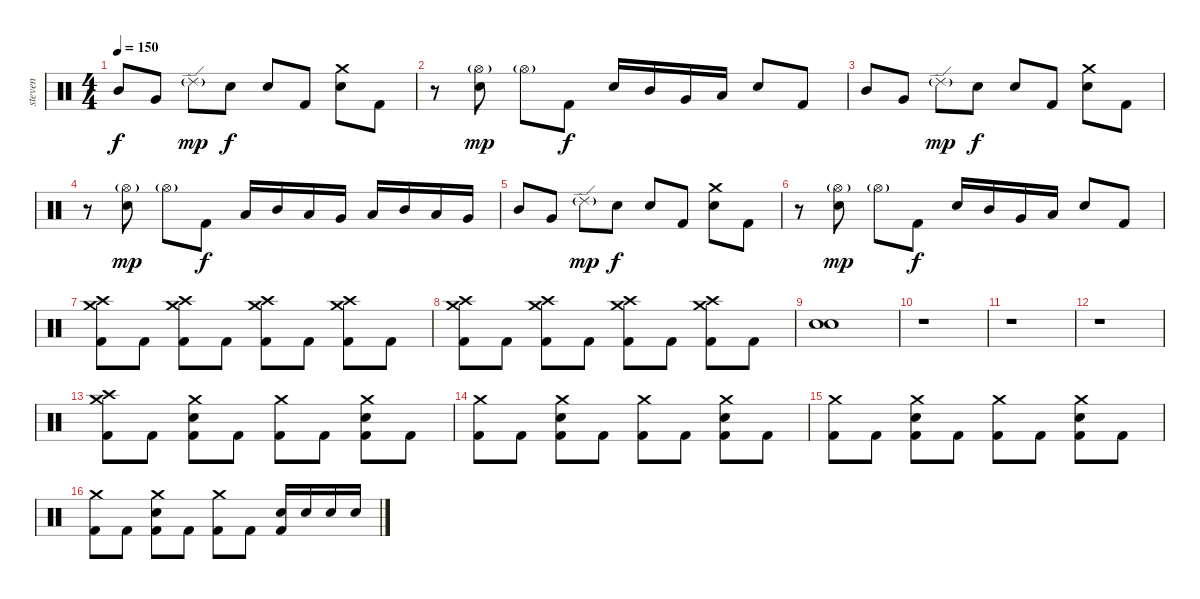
\track ("steven" "steven") {instrument percussion}
\staff {score}
\articulation defaults
\ts (4 4)
\tempo 150
\clef neutral
\ks c "Mid Tom (hit)".8{dy f} "Very Low Tom (hit)".8 "Ride (edge) 2"{g}.8{dy mp} "Electric Snare (hit)".8{dy f} "Electric Snare (hit)".8 "Kick (hit) 2".8
("Crash medium (hit)" "Electric Snare (hit)").8 "Kick (hit) 2".8 |
r.8 ("Hi-Hat (open)"{g} "Electric Snare (hit)").8{dy mp} "Hi-Hat (open)"{g}.8 "Kick (hit) 2".8{dy f} "Electric Snare (hit)".16 "Mid Tom (hit)".16 "Very Low Tom (hit)".16 "Low Tom (hit)".16 "Electric Snare (hit)".8 "Kick (hit) 2".8 |
"Mid Tom (hit)".8 "Very Low Tom (hit)".8 "Ride (edge) 2"{g}.8{dy mp} "Electric Snare (hit)".8{dy f} "Electric Snare (hit)".8 "Kick (hit) 2".8 ("Crash medium (hit)" "Electric Snare (hit)").8 "Kick (hit) 2".8 |
r.8 ("Hi-Hat (open)"{g} "Electric Snare (hit)").8{dy mp} "Hi-Hat (open)"{g}.8 "Kick (hit) 2".8{dy f} "Low Tom (hit)".16 "Mid Tom (hit)".16 "Low Tom (hit)".16 "Very Low Tom (hit)".16 "Low Tom (hit)".16 "Mid Tom (hit)".16 "Low Tom (hit)".16 "Very Low Tom (hit)".16 |
"Mid Tom (hit)".8 "Very Low Tom (hit)".8 "Ride (edge) 2"{g}.8{dy mp} "Electric Snare (hit)".8{dy f} "Electric Snare (hit)".8 "Kick (hit) 2".8 ("Crash medium (hit)" "Electric Snare (hit)").8 "Kick (hit) 2".8 |
r.8 ("Hi-Hat (open)"{g} "Electric Snare (hit)").8{dy mp} "Hi-Hat (open)"{g}.8 "Kick (hit) 2".8{dy f} "Electric Snare (hit)".16 "Mid Tom (hit)".16 "Very Low Tom (hit)".16 "Low Tom (hit)".16 "Electric Snare (hit)".8 "Kick (hit) 2".8 |
("Crash high (hit)" "Crash medium (hit)" "Kick (hit) 2").8 "Kick (hit) 2".8 ("Crash high (hit)" "Crash medium (hit)" "Kick (hit) 2").8 "Kick (hit) 2".8 ("Crash high (hit)" "Crash medium (hit)" "Kick (hit) 2").8 "Kick (hit) 2".8 ("Crash high (hit)" "Crash medium (hit)" "Kick (hit) 2").8 "Kick (hit) 2".8 |
("Crash high (hit)" "Crash medium (hit)" "Kick (hit) 2").8 "Kick (hit) 2".8 ("Crash high (hit)" "Crash medium (hit)" "Kick (hit) 2").8 "Kick (hit) 2".8 ("Crash high (hit)" "Crash medium (hit)" "Kick (hit) 2").8 "Kick (hit) 2".8 ("Crash high (hit)" "Crash medium (hit)" "Kick (hit) 2").8 "Kick (hit) 2".8 |
("Electric Snare (hit)" "Electric Snare (hit)").1 |
r.1 |
r.1 |
r.1 |
("Crash high (hit)" "Crash medium (hit)" "Kick (hit) 2").8 "Kick (hit) 2".8 ("Crash medium (hit)" "Electric Snare (hit)" "Kick (hit) 2").8 "Kick (hit) 2".8 ("Crash medium (hit)" "Kick (hit) 2").8 "Kick (hit) 2".8 ("Crash medium (hit)" "Electric Snare (hit)" "Kick (hit) 2").8 "Kick (hit) 2".8 |
("Crash medium (hit)" "Kick (hit) 2").8 "Kick (hit) 2".8 ("Crash medium (hit)" "Electric Snare (hit)" "Kick (hit) 2").8 "Kick (hit) 2".8 ("Crash medium (hit)" "Kick (hit) 2").8 "Kick (hit) 2".8 ("Crash medium (hit)" "Electric Snare (hit)" "Kick (hit) 2").8 "Kick (hit) 2".8 |
("Crash medium (hit)" "Kick (hit) 2").8 "Kick (hit) 2".8 ("Crash medium (hit)" "Electric Snare (hit)" "Kick (hit) 2").8 "Kick (hit) 2".8 ("Crash medium (hit)" "Kick (hit) 2").8 "Kick (hit) 2".8 ("Crash medium (hit)" "Electric Snare (hit)" "Kick (hit) 2").8 "Kick (hit) 2".8 |
("Crash medium (hit)" "Kick (hit) 2").8 "Kick (hit) 2".8 ("Crash medium (hit)" "Electric Snare (hit)" "Kick (hit) 2").8 "Kick (hit) 2".8 ("Crash medium (hit)" "Kick (hit) 2").8 "Kick (hit) 2".8 ("Electric Snare (hit)" "Kick (hit) 2").16 "Electric Snare (hit)".16 "Electric Snare (hit)".16 "Electric Snare (hit)".16
